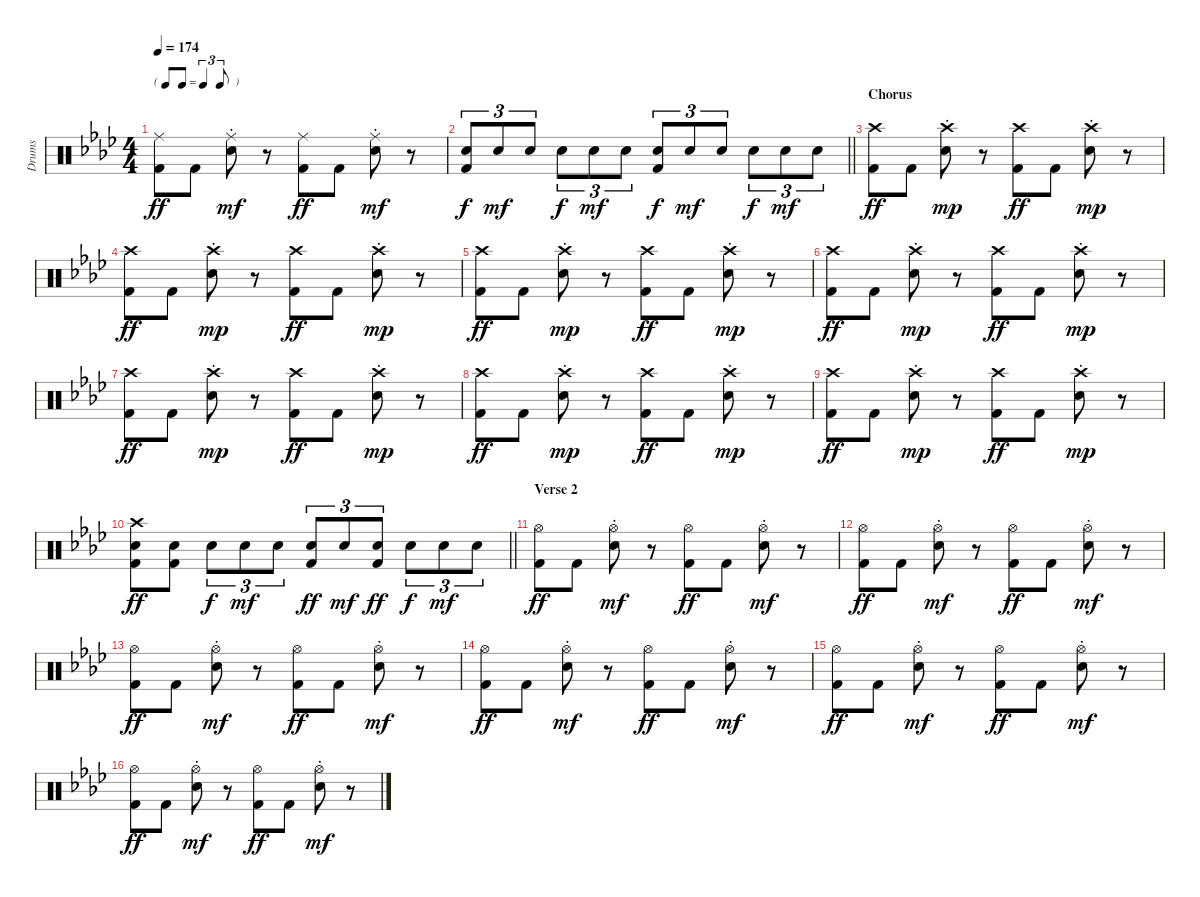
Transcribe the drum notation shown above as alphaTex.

\track ("Drums" "Drums") {instrument percussion}
\staff {score}
\articulation defaults
\ts (4 4)
\tf triplet8th
\tempo 174
\clef neutral
\ks ab
("Ride (middle)" "Kick (hit) 2").8{dy ff} "Kick (hit) 2".8 ("Ride (middle)" "Snare (hit) 2"{st}).8{dy mf} r.8 ("Ride (middle)" "Kick (hit) 2").8{dy ff} "Kick (hit) 2".8 ("Ride (middle)" "Snare (hit) 2"{st}).8{dy mf} r.8 |
\barLineRight lightlight
("Snare (hit) 2" "Kick (hit) 2").8{tu (3 2) dy f} "Snare (hit) 2".8{tu (3 2) dy mf} "Snare (hit) 2".8{tu (3 2)} "Snare (hit) 2".8{tu (3 2) dy f} "Snare (hit) 2".8{tu (3 2) dy mf} "Snare (hit) 2".8{tu (3 2)} ("Snare (hit) 2" "Kick (hit) 2").8{tu (3 2) dy f} "Snare (hit) 2".8{tu (3 2) dy mf} "Snare (hit) 2".8{tu (3 2)} "Snare (hit) 2".8{tu (3 2) dy f} "Snare (hit) 2".8{tu (3 2) dy mf} "Snare (hit) 2".8{tu (3 2)} |
\section ("" "Chorus")
("Crash high (hit)" "Kick (hit) 2").8{dy ff} "Kick (hit) 2".8 ("Crash high (hit)" "Snare (hit) 2"{st}).8{dy mp} r.8 ("Crash high (hit)" "Kick (hit) 2").8{dy ff} "Kick (hit) 2".8 ("Crash high (hit)" "Snare (hit) 2"{st}).8{dy mp} r.8 |
("Crash high (hit)" "Kick (hit) 2").8{dy ff} "Kick (hit) 2".8 ("Crash high (hit)" "Snare (hit) 2"{st}).8{dy mp} r.8 ("Crash high (hit)" "Kick (hit) 2").8{dy ff} "Kick (hit) 2".8 ("Crash high (hit)" "Snare (hit) 2"{st}).8{dy mp} r.8 |
("Crash high (hit)" "Kick (hit) 2").8{dy ff} "Kick (hit) 2".8 ("Crash high (hit)" "Snare (hit) 2"{st}).8{dy mp} r.8 ("Crash high (hit)" "Kick (hit) 2").8{dy ff} "Kick (hit) 2".8 ("Crash high (hit)" "Snare (hit) 2"{st}).8{dy mp} r.8 |
("Crash high (hit)" "Kick (hit) 2").8{dy ff} "Kick (hit) 2".8 ("Crash high (hit)" "Snare (hit) 2"{st}).8{dy mp} r.8 ("Crash high (hit)" "Kick (hit) 2").8{dy ff} "Kick (hit) 2".8 ("Crash high (hit)" "Snare (hit) 2"{st}).8{dy mp} r.8 |
("Crash high (hit)" "Kick (hit) 2").8{dy ff} "Kick (hit) 2".8 ("Crash high (hit)" "Snare (hit) 2"{st}).8{dy mp} r.8 ("Crash high (hit)" "Kick (hit) 2").8{dy ff} "Kick (hit) 2".8 ("Crash high (hit)" "Snare (hit) 2"{st}).8{dy mp} r.8 |
("Crash high (hit)" "Kick (hit) 2").8{dy ff} "Kick (hit) 2".8 ("Crash high (hit)" "Snare (hit) 2"{st}).8{dy mp} r.8 ("Crash high (hit)" "Kick (hit) 2").8{dy ff} "Kick (hit) 2".8 ("Crash high (hit)" "Snare (hit) 2"{st}).8{dy mp} r.8 |
("Crash high (hit)" "Kick (hit) 2").8{dy ff} "Kick (hit) 2".8 ("Crash high (hit)" "Snare (hit) 2"{st}).8{dy mp} r.8 ("Crash high (hit)" "Kick (hit) 2").8{dy ff} "Kick (hit) 2".8 ("Crash high (hit)" "Snare (hit) 2"{st}).8{dy mp} r.8 |
\barLineRight lightlight
("Crash high (hit)" "Snare (hit) 2" "Kick (hit) 2").8{dy ff} ("Snare (hit) 2" "Kick (hit) 2").8 "Snare (hit) 2".8{tu (3 2) dy f} "Snare (hit) 2".8{tu (3 2) dy mf} "Snare (hit) 2".8{tu (3 2)} ("Snare (hit) 2" "Kick (hit) 2").8{tu (3 2) dy ff} "Snare (hit) 2".8{tu (3 2) dy mf} ("Snare (hit) 2" "Kick (hit) 2").8{tu (3 2) dy ff} "Snare (hit) 2".8{tu (3 2) dy f} "Snare (hit) 2".8{tu (3 2) dy mf} "Snare (hit) 2".8{tu (3 2)} |
\section ("" "Verse 2")
("Hi-Hat (open)" "Kick (hit) 2").8{dy ff} "Kick (hit) 2".8 ("Hi-Hat (open)" "Snare (hit) 2"{st}).8{dy mf} r.8 ("Hi-Hat (open)" "Kick (hit) 2").8{dy ff} "Kick (hit) 2".8 ("Hi-Hat (open)" "Snare (hit) 2"{st}).8{dy mf} r.8 |
("Hi-Hat (open)" "Kick (hit) 2").8{dy ff} "Kick (hit) 2".8 ("Hi-Hat (open)" "Snare (hit) 2"{st}).8{dy mf} r.8 ("Hi-Hat (open)" "Kick (hit) 2").8{dy ff} "Kick (hit) 2".8 ("Hi-Hat (open)" "Snare (hit) 2"{st}).8{dy mf} r.8 |
("Hi-Hat (open)" "Kick (hit) 2").8{dy ff} "Kick (hit) 2".8 ("Hi-Hat (open)" "Snare (hit) 2"{st}).8{dy mf} r.8 ("Hi-Hat (open)" "Kick (hit) 2").8{dy ff} "Kick (hit) 2".8 ("Hi-Hat (open)" "Snare (hit) 2"{st}).8{dy mf} r.8 |
("Hi-Hat (open)" "Kick (hit) 2").8{dy ff} "Kick (hit) 2".8 ("Hi-Hat (open)" "Snare (hit) 2"{st}).8{dy mf} r.8 ("Hi-Hat (open)" "Kick (hit) 2").8{dy ff} "Kick (hit) 2".8 ("Hi-Hat (open)" "Snare (hit) 2"{st}).8{dy mf} r.8 |
("Hi-Hat (open)" "Kick (hit) 2").8{dy ff} "Kick (hit) 2".8 ("Hi-Hat (open)" "Snare (hit) 2"{st}).8{dy mf} r.8 ("Hi-Hat (open)" "Kick (hit) 2").8{dy ff} "Kick (hit) 2".8 ("Hi-Hat (open)" "Snare (hit) 2"{st}).8{dy mf} r.8 |
("Hi-Hat (open)" "Kick (hit) 2").8{dy ff} "Kick (hit) 2".8 ("Hi-Hat (open)" "Snare (hit) 2"{st}).8{dy mf} r.8 ("Hi-Hat (open)" "Kick (hit) 2").8{dy ff} "Kick (hit) 2".8 ("Hi-Hat (open)" "Snare (hit) 2"{st}).8{dy mf} r.8
